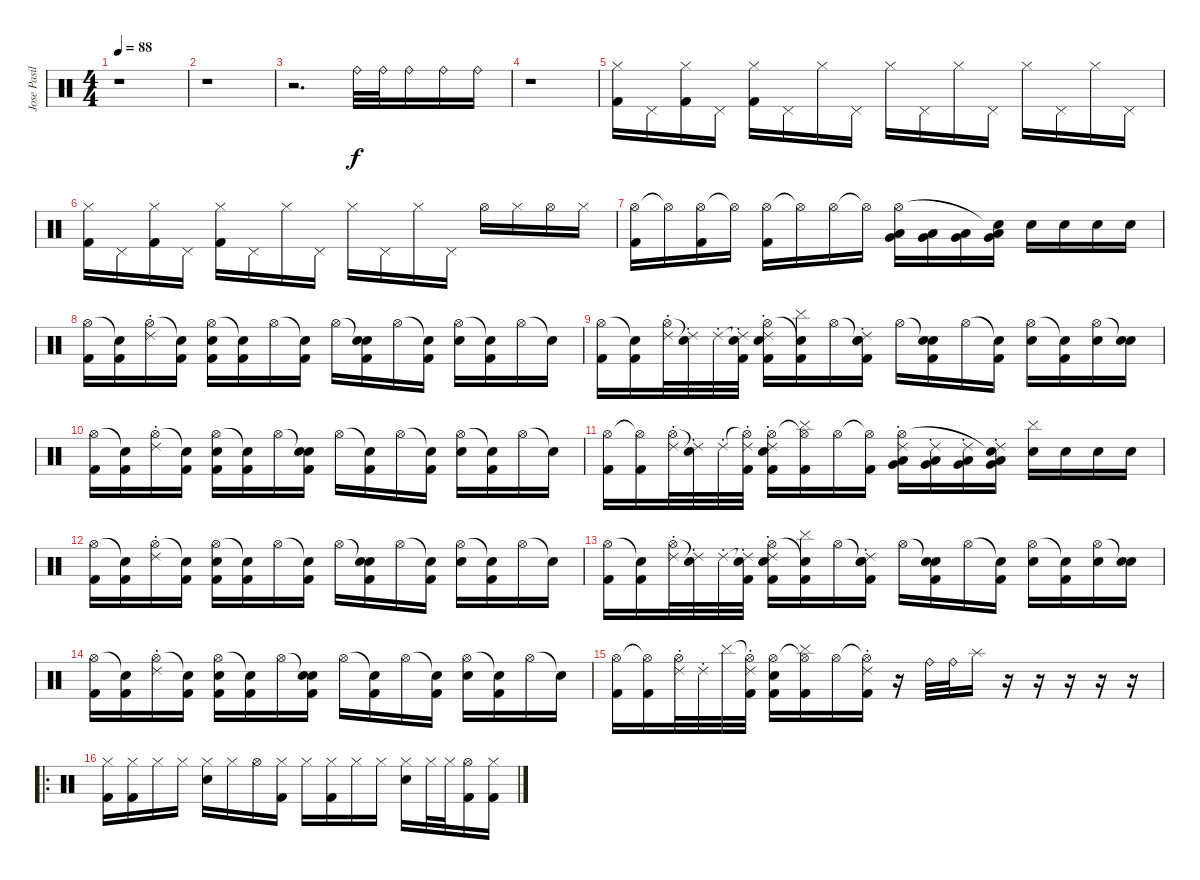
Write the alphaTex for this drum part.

\track ("Jose Pasillas/Dj Kilmore" "Jose Pasil") {instrument percussion}
\staff {score}
\articulation defaults
\ts (4 4)
\tempo 88
\clef neutral
\ks c
r.1{dy f} |
r.1 |
r.2{d} "Ride (bell)".32 "Ride (bell)".32 "Ride (bell)".16 "Ride (bell)".16 "Ride (bell)".16 |
r.1 |
("Hi-Hat (closed)" "Kick (hit) 2").16 "Pedal Hi-Hat (hit)".16 ("Hi-Hat (closed)" "Kick (hit) 2").16 "Pedal Hi-Hat (hit)".16 ("Hi-Hat (closed)" "Kick (hit) 2").16 "Pedal Hi-Hat (hit)".16 "Hi-Hat (closed)".16 "Pedal Hi-Hat (hit)".16 "Hi-Hat (closed)".16 "Pedal Hi-Hat (hit)".16 "Hi-Hat (closed)".16 "Pedal Hi-Hat (hit)".16 "Hi-Hat (closed)".16 "Pedal Hi-Hat (hit)".16 "Hi-Hat (closed)".16 "Pedal Hi-Hat (hit)".16 |
("Hi-Hat (closed)" "Kick (hit) 2").16 "Pedal Hi-Hat (hit)".16 ("Hi-Hat (closed)" "Kick (hit) 2").16 "Pedal Hi-Hat (hit)".16 ("Hi-Hat (closed)" "Kick (hit) 2").16 "Pedal Hi-Hat (hit)".16 "Hi-Hat (closed)".16 "Pedal Hi-Hat (hit)".16 "Hi-Hat (closed)".16 "Pedal Hi-Hat (hit)".16 "Hi-Hat (closed)".16 "Pedal Hi-Hat (hit)".16 "Hi-Hat (open)".16 "Hi-Hat (closed)".16 "Hi-Hat (open)".16 "Hi-Hat (closed)".16 |
("Hi-Hat (open)" "Kick (hit) 2").16 "Hi-Hat (open)"{t}.16 ("Hi-Hat (open)" "Kick (hit) 2").16 "Hi-Hat (open)"{t}.16 ("Hi-Hat (open)" "Kick (hit) 2").16 "Hi-Hat (open)"{t}.16 "Hi-Hat (open)".16 "Hi-Hat (open)"{t}.16 ("Low Tom (hit)" "Very Low Tom (hit)" "Hi-Hat (open)").16 ("Low Tom (hit)" "Very Low Tom (hit)").16 ("Low Tom (hit)" "Very Low Tom (hit)").16 ("Low Tom (hit)" "Very Low Tom (hit)" "Snare (hit)"{t}).16 "Electric Snare (hit)".16 "Electric Snare (hit)".16 "Electric Snare (hit)".16 "Electric Snare (hit)".16 |
("Hi-Hat (open)" "Kick (hit) 2").16 ("Snare (hit)"{t} "Kick (hit) 2").16 ("Hi-Hat (open)" "Ride (choke) 2").16 ("Snare (hit)"{t} "Kick (hit) 2").16 ("Hi-Hat (open)" "Electric Snare (hit)" "Kick (hit) 2").16 ("Snare (hit)"{t} "Kick (hit) 2").16 "Hi-Hat (open)".16 ("Snare (hit)"{t} "Kick (hit) 2").16 "Hi-Hat (open)".16 ("Snare (hit)"{t} "Electric Snare (hit)" "Kick (hit) 2").16 "Hi-Hat (open)".16 ("Snare (hit)"{t} "Kick (hit) 2").16 ("Hi-Hat (open)" "Electric Snare (hit)").16 ("Snare (hit)"{t} "Kick (hit) 2").16 "Hi-Hat (open)".16 "Snare (hit)"{t}.16 |
("Hi-Hat (open)" "Kick (hit) 2").16 ("Snare (hit)"{t} "Kick (hit) 2").16 ("Hi-Hat (open)" "Ride (choke) 2").32 ("Snare (hit)"{t} "Ride (choke) 2").32 "Ride (choke) 2".32 ("Snare (hit)"{t} "Ride (choke) 2" "Kick (hit) 2").32 ("Hi-Hat (open)" "Electric Snare (hit)" "Ride (choke) 2" "Kick (hit) 2").16 ("Snare (hit)"{t} "Cymbal (hit)" "Kick (hit) 2").16 "Hi-Hat (open)".16 ("Snare (hit)"{t} "Electric Snare (hit)" "Ride (choke) 2" "Kick (hit) 2").16 "Hi-Hat (open)".16 ("Snare (hit)"{t} "Electric Snare (hit)" "Kick (hit) 2").16 "Hi-Hat (open)".16 ("Snare (hit)"{t} "Kick (hit) 2").16 ("Hi-Hat (open)" "Electric Snare (hit)").16 ("Snare (hit)"{t} "Kick (hit) 2").16 ("Hi-Hat (open)" "Electric Snare (hit)").16 ("Snare (hit)"{t} "Electric Snare (hit)").16 |
("Hi-Hat (open)" "Kick (hit) 2").16 ("Snare (hit)"{t} "Kick (hit) 2").16 ("Hi-Hat (open)" "Ride (choke) 2").16 ("Snare (hit)"{t} "Kick (hit) 2").16 ("Hi-Hat (open)" "Electric Snare (hit)" "Kick (hit) 2").16 ("Snare (hit)"{t} "Kick (hit) 2").16 "Hi-Hat (open)".16 ("Snare (hit)"{t} "Electric Snare (hit)" "Kick (hit) 2").16 "Hi-Hat (open)".16 ("Snare (hit)"{t} "Kick (hit) 2").16 "Hi-Hat (open)".16 ("Snare (hit)"{t} "Kick (hit) 2").16 ("Hi-Hat (open)" "Electric Snare (hit)").16 ("Snare (hit)"{t} "Kick (hit) 2").16 "Hi-Hat (open)".16 "Snare (hit)"{t}.16 |
("Hi-Hat (open)" "Kick (hit) 2").16 ("Hi-Hat (open)"{t} "Kick (hit) 2").16 ("Hi-Hat (open)" "Ride (choke) 2").32 ("Snare (hit)"{t} "Ride (choke) 2").32 "Ride (choke) 2".32 ("Hi-Hat (open)"{t} "Ride (choke) 2" "Kick (hit) 2").32 ("Hi-Hat (open)" "Electric Snare (hit)" "Ride (choke) 2" "Kick (hit) 2").16 ("Hi-Hat (open)"{t} "Cymbal (hit)" "Kick (hit) 2").16 "Hi-Hat (open)".16 ("Hi-Hat (open)"{t} "Kick (hit) 2").16 ("Low Tom (hit)" "Very Low Tom (hit)" "Ride (choke) 2" "Hi-Hat (open)").16 ("Low Tom (hit)" "Very Low Tom (hit)" "Ride (choke) 2").16 ("Low Tom (hit)" "Very Low Tom (hit)" "Ride (choke) 2").16 ("Low Tom (hit)" "Very Low Tom (hit)" "Ride (choke) 2" "Snare (hit)"{t}).16 ("Electric Snare (hit)" "Cymbal (hit)").16 "Electric Snare (hit)".16 "Electric Snare (hit)".16 "Electric Snare (hit)".16 |
("Hi-Hat (open)" "Kick (hit) 2").16 ("Snare (hit)"{t} "Kick (hit) 2").16 ("Hi-Hat (open)" "Ride (choke) 2").16 ("Snare (hit)"{t} "Kick (hit) 2").16 ("Hi-Hat (open)" "Electric Snare (hit)" "Kick (hit) 2").16 ("Snare (hit)"{t} "Kick (hit) 2").16 "Hi-Hat (open)".16 ("Snare (hit)"{t} "Kick (hit) 2").16 "Hi-Hat (open)".16 ("Snare (hit)"{t} "Electric Snare (hit)" "Kick (hit) 2").16 "Hi-Hat (open)".16 ("Snare (hit)"{t} "Kick (hit) 2").16 ("Hi-Hat (open)" "Electric Snare (hit)").16 ("Snare (hit)"{t} "Kick (hit) 2").16 "Hi-Hat (open)".16 "Snare (hit)"{t}.16 |
("Hi-Hat (open)" "Kick (hit) 2").16 ("Snare (hit)"{t} "Kick (hit) 2").16 ("Hi-Hat (open)" "Ride (choke) 2").32 ("Snare (hit)"{t} "Ride (choke) 2").32 "Ride (choke) 2".32 ("Snare (hit)"{t} "Ride (choke) 2" "Kick (hit) 2").32 ("Hi-Hat (open)" "Electric Snare (hit)" "Ride (choke) 2" "Kick (hit) 2").16 ("Snare (hit)"{t} "Cymbal (hit)" "Kick (hit) 2").16 "Hi-Hat (open)".16 ("Snare (hit)"{t} "Electric Snare (hit)" "Ride (choke) 2" "Kick (hit) 2").16 "Hi-Hat (open)".16 ("Snare (hit)"{t} "Electric Snare (hit)" "Kick (hit) 2").16 "Hi-Hat (open)".16 ("Snare (hit)"{t} "Kick (hit) 2").16 ("Hi-Hat (open)" "Electric Snare (hit)").16 ("Snare (hit)"{t} "Kick (hit) 2").16 ("Hi-Hat (open)" "Electric Snare (hit)").16 ("Snare (hit)"{t} "Electric Snare (hit)").16 |
("Hi-Hat (open)" "Kick (hit) 2").16 ("Snare (hit)"{t} "Kick (hit) 2").16 ("Hi-Hat (open)" "Ride (choke) 2").16 ("Snare (hit)"{t} "Kick (hit) 2").16 ("Hi-Hat (open)" "Electric Snare (hit)" "Kick (hit) 2").16 ("Snare (hit)"{t} "Kick (hit) 2").16 "Hi-Hat (open)".16 ("Snare (hit)"{t} "Electric Snare (hit)" "Kick (hit) 2").16 "Hi-Hat (open)".16 ("Snare (hit)"{t} "Kick (hit) 2").16 "Hi-Hat (open)".16 ("Snare (hit)"{t} "Kick (hit) 2").16 ("Hi-Hat (open)" "Electric Snare (hit)").16 ("Snare (hit)"{t} "Kick (hit) 2").16 "Hi-Hat (open)".16 "Snare (hit)"{t}.16 |
("Hi-Hat (open)" "Kick (hit) 2").16 ("Hi-Hat (open)"{t} "Kick (hit) 2").16 ("Hi-Hat (open)" "Ride (choke) 2").32 "Ride (choke) 2".32 "Cymbal (hit)".32 ("Hi-Hat (open)"{t} "Ride (choke) 2" "Kick (hit) 2").32 ("Hi-Hat (open)" "Electric Snare (hit)" "Kick (hit) 2").16 ("Hi-Hat (open)"{t} "Cymbal (hit)" "Kick (hit) 2").16 "Hi-Hat (open)".16 ("Hi-Hat (open)"{t} "Ride (choke) 2" "Kick (hit) 2").16 r.16 "Ride (bell)".32 "Ride (bell)".32 "Splash (hit)".16 r.16 r.16 r.16 r.16 r.16 |
\ro
("Hi-Hat (closed)" "Kick (hit) 2").16 ("Hi-Hat (closed)" "Kick (hit) 2").16 "Hi-Hat (closed)".16 "Hi-Hat (closed)".16 ("Hi-Hat (closed)" "Electric Snare (hit)").16 "Hi-Hat (closed)".16 "Hi-Hat (open)".16 ("Hi-Hat (closed)" "Kick (hit) 2").16 "Hi-Hat (closed)".16 ("Hi-Hat (closed)" "Kick (hit) 2").16 "Hi-Hat (closed)".16 "Hi-Hat (closed)".16 ("Hi-Hat (closed)" "Electric Snare (hit)").16 "Hi-Hat (closed)".32 "Hi-Hat (closed)".32 ("Hi-Hat (open)" "Kick (hit) 2").16 ("Hi-Hat (closed)" "Kick (hit) 2").16
